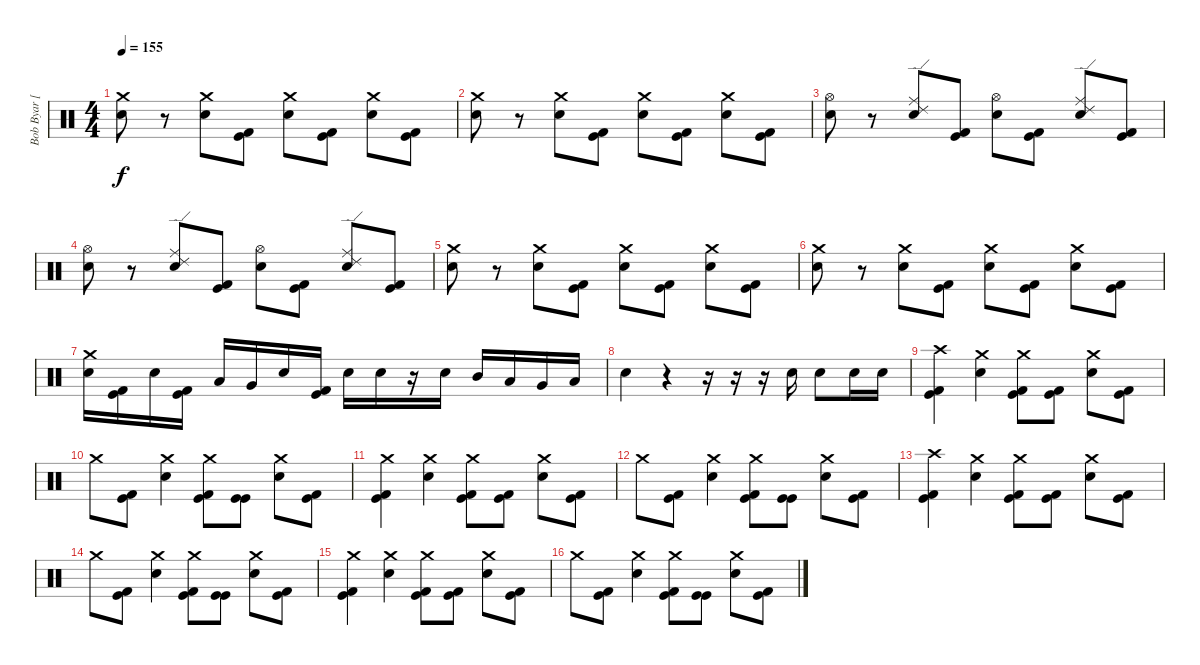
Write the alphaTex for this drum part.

\track ("Bob Byar [Drums]" "Bob Byar [") {instrument percussion}
\staff {score}
\articulation defaults
\ts (4 4)
\tempo 155
\clef neutral
\ks c
("Crash medium (hit)" "Electric Snare (hit)").8{dy f} r.8 ("Crash medium (hit)" "Electric Snare (hit)").8 ("Kick (hit)" "Kick (hit) 2").8 ("Crash medium (hit)" "Electric Snare (hit)").8 ("Kick (hit)" "Kick (hit) 2").8 ("Crash medium (hit)" "Electric Snare (hit)").8 ("Kick (hit) 2" "Kick (hit)").8 |
("Crash medium (hit)" "Electric Snare (hit)").8 r.8 ("Crash medium (hit)" "Electric Snare (hit)").8 ("Kick (hit)" "Kick (hit) 2").8 ("Crash medium (hit)" "Electric Snare (hit)").8 ("Kick (hit)" "Kick (hit) 2").8 ("Crash medium (hit)" "Electric Snare (hit)").8 ("Kick (hit) 2" "Kick (hit)").8 |
("Hi-Hat (open)" "Electric Snare (hit)").8 r.8 ("Ride (middle)" "Ride (edge) 2" "Electric Snare (hit)").8 ("Kick (hit)" "Kick (hit) 2").8 ("Hi-Hat (open)" "Electric Snare (hit)").8 ("Kick (hit)" "Kick (hit) 2").8 ("Ride (edge) 2" "Ride (middle)" "Electric Snare (hit)").8 ("Kick (hit) 2" "Kick (hit)").8 |
("Hi-Hat (open)" "Electric Snare (hit)").8 r.8 ("Ride (middle)" "Ride (edge) 2" "Electric Snare (hit)").8 ("Kick (hit)" "Kick (hit) 2").8 ("Hi-Hat (open)" "Electric Snare (hit)").8 ("Kick (hit)" "Kick (hit) 2").8 ("Ride (edge) 2" "Ride (middle)" "Electric Snare (hit)").8 ("Kick (hit) 2" "Kick (hit)").8 |
("Crash medium (hit)" "Electric Snare (hit)").8 r.8 ("Crash medium (hit)" "Electric Snare (hit)").8 ("Kick (hit)" "Kick (hit) 2").8 ("Crash medium (hit)" "Electric Snare (hit)").8 ("Kick (hit)" "Kick (hit) 2").8 ("Crash medium (hit)" "Electric Snare (hit)").8 ("Kick (hit) 2" "Kick (hit)").8 |
("Crash medium (hit)" "Electric Snare (hit)").8 r.8 ("Crash medium (hit)" "Electric Snare (hit)").8 ("Kick (hit)" "Kick (hit) 2").8 ("Crash medium (hit)" "Electric Snare (hit)").8 ("Kick (hit)" "Kick (hit) 2").8 ("Crash medium (hit)" "Electric Snare (hit)").8 ("Kick (hit) 2" "Kick (hit)").8 |
("Crash medium (hit)" "Electric Snare (hit)").16 ("Kick (hit)" "Kick (hit) 2").16 "Electric Snare (hit)".16 ("Kick (hit)" "Kick (hit) 2").16 "Low Tom (hit)".16 "Very Low Tom (hit)".16 "Electric Snare (hit)".16 ("Kick (hit)" "Kick (hit) 2").16 "Electric Snare (hit)".16 "Electric Snare (hit)".16 r.16 "Electric Snare (hit)".16 "Mid Tom (hit)".16 "Low Tom (hit)".16 "Very Low Tom (hit)".16 "Low Floor Tom (hit)".16 |
"Electric Snare (hit)".4 r.4 r.16 r.16 r.16 "Electric Snare (hit)".16 "Electric Snare (hit)".8 "Electric Snare (hit)".16 "Electric Snare (hit)".16 |
("Crash high (hit)" "Kick (hit)" "Kick (hit) 2").4 ("Crash medium (hit)" "Electric Snare (hit)").4 ("Crash medium (hit)" "Kick (hit)" "Kick (hit) 2").8 ("Kick (hit)" "Kick (hit) 2").8 ("Crash medium (hit)" "Electric Snare (hit)").8 ("Kick (hit)" "Kick (hit) 2").8 |
"Crash medium (hit)".8 ("Kick (hit)" "Kick (hit) 2").8 ("Crash medium (hit)" "Electric Snare (hit)").4 ("Crash medium (hit)" "Kick (hit)" "Kick (hit) 2").8 ("Kick (hit)" "Kick (hit)").8 ("Crash medium (hit)" "Electric Snare (hit)").8 ("Kick (hit)" "Kick (hit) 2").8 |
("Crash medium (hit)" "Kick (hit)" "Kick (hit) 2").4 ("Crash medium (hit)" "Electric Snare (hit)").4 ("Crash medium (hit)" "Kick (hit)" "Kick (hit) 2").8 ("Kick (hit)" "Kick (hit) 2").8 ("Crash medium (hit)" "Electric Snare (hit)").8 ("Kick (hit)" "Kick (hit) 2").8 |
"Crash medium (hit)".8 ("Kick (hit)" "Kick (hit) 2").8 ("Crash medium (hit)" "Electric Snare (hit)").4 ("Crash medium (hit)" "Kick (hit)" "Kick (hit) 2").8 ("Kick (hit)" "Kick (hit)").8 ("Crash medium (hit)" "Electric Snare (hit)").8 ("Kick (hit)" "Kick (hit) 2").8 |
("Crash high (hit)" "Kick (hit)" "Kick (hit) 2").4 ("Crash medium (hit)" "Electric Snare (hit)").4 ("Crash medium (hit)" "Kick (hit)" "Kick (hit) 2").8 ("Kick (hit)" "Kick (hit) 2").8 ("Crash medium (hit)" "Electric Snare (hit)").8 ("Kick (hit)" "Kick (hit) 2").8 |
"Crash medium (hit)".8 ("Kick (hit)" "Kick (hit) 2").8 ("Crash medium (hit)" "Electric Snare (hit)").4 ("Crash medium (hit)" "Kick (hit)" "Kick (hit) 2").8 ("Kick (hit)" "Kick (hit)").8 ("Crash medium (hit)" "Electric Snare (hit)").8 ("Kick (hit)" "Kick (hit) 2").8 |
("Crash medium (hit)" "Kick (hit)" "Kick (hit) 2").4 ("Crash medium (hit)" "Electric Snare (hit)").4 ("Crash medium (hit)" "Kick (hit)" "Kick (hit) 2").8 ("Kick (hit)" "Kick (hit) 2").8 ("Crash medium (hit)" "Electric Snare (hit)").8 ("Kick (hit)" "Kick (hit) 2").8 |
"Crash medium (hit)".8 ("Kick (hit)" "Kick (hit) 2").8 ("Crash medium (hit)" "Electric Snare (hit)").4 ("Crash medium (hit)" "Kick (hit)" "Kick (hit) 2").8 ("Kick (hit)" "Kick (hit)").8 ("Crash medium (hit)" "Electric Snare (hit)").8 ("Kick (hit)" "Kick (hit) 2").8
